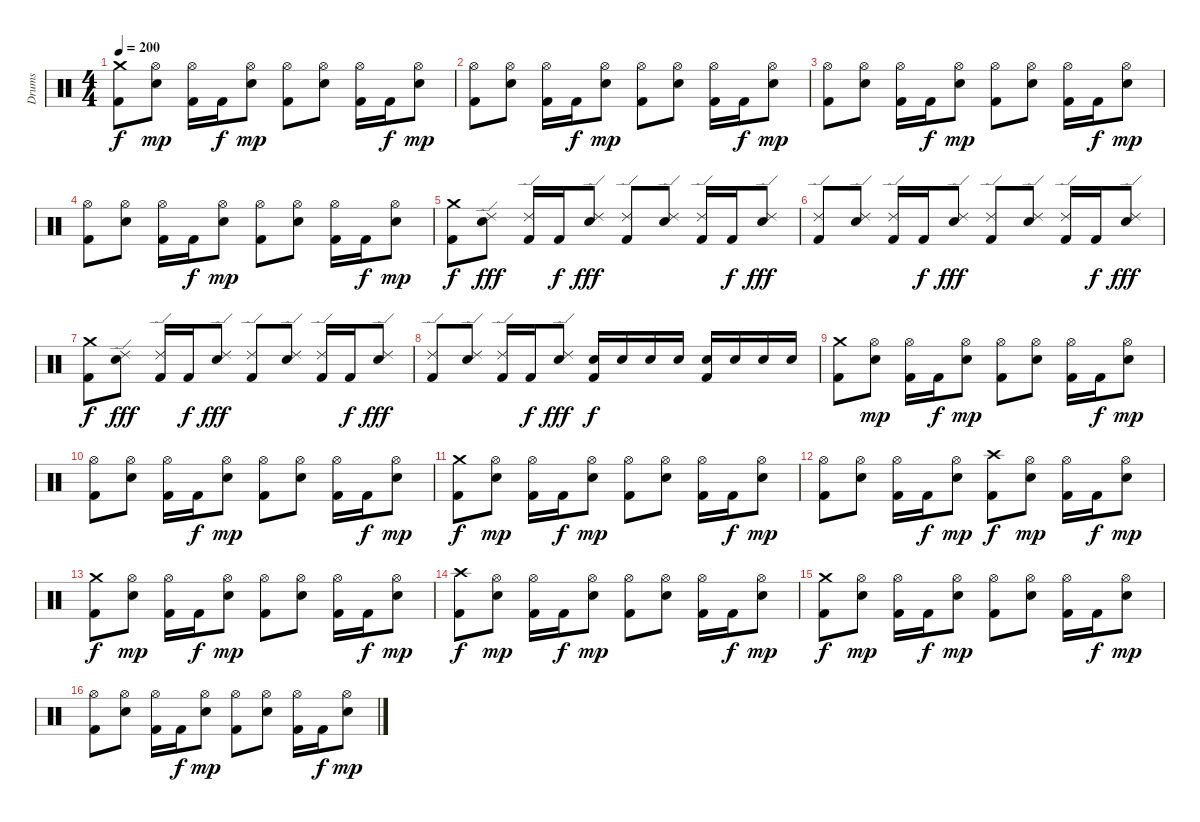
\track ("Drums" "Drums") {instrument percussion}
\staff {score}
\articulation defaults
\ts (4 4)
\tempo 200
\clef neutral
\ks c
("Crash medium (hit)" "Kick (hit) 2").8{dy f} ("Hi-Hat (open)" "Snare (hit) 2").8{dy mp} ("Hi-Hat (open)" "Kick (hit) 2").16 "Kick (hit) 2".16{dy f} ("Hi-Hat (open)" "Snare (hit) 2").8{dy mp} ("Hi-Hat (open)" "Kick (hit) 2").8 ("Hi-Hat (open)" "Snare (hit) 2").8 ("Hi-Hat (open)" "Kick (hit) 2").16 "Kick (hit) 2".16{dy f} ("Hi-Hat (open)" "Snare (hit) 2").8{dy mp} |
("Hi-Hat (open)" "Kick (hit) 2").8 ("Hi-Hat (open)" "Snare (hit) 2").8 ("Hi-Hat (open)" "Kick (hit) 2").16 "Kick (hit) 2".16{dy f} ("Hi-Hat (open)" "Snare (hit) 2").8{dy mp} ("Hi-Hat (open)" "Kick (hit) 2").8 ("Hi-Hat (open)" "Snare (hit) 2").8 ("Hi-Hat (open)" "Kick (hit) 2").16 "Kick (hit) 2".16{dy f} ("Hi-Hat (open)" "Snare (hit) 2").8{dy mp} |
("Hi-Hat (open)" "Kick (hit) 2").8 ("Hi-Hat (open)" "Snare (hit) 2").8 ("Hi-Hat (open)" "Kick (hit) 2").16 "Kick (hit) 2".16{dy f} ("Hi-Hat (open)" "Snare (hit) 2").8{dy mp} ("Hi-Hat (open)" "Kick (hit) 2").8 ("Hi-Hat (open)" "Snare (hit) 2").8 ("Hi-Hat (open)" "Kick (hit) 2").16 "Kick (hit) 2".16{dy f} ("Hi-Hat (open)" "Snare (hit) 2").8{dy mp} |
("Hi-Hat (open)" "Kick (hit) 2").8 ("Hi-Hat (open)" "Snare (hit) 2").8 ("Hi-Hat (open)" "Kick (hit) 2").16 "Kick (hit) 2".16{dy f} ("Hi-Hat (open)" "Snare (hit) 2").8{dy mp} ("Hi-Hat (open)" "Kick (hit) 2").8 ("Hi-Hat (open)" "Snare (hit) 2").8 ("Hi-Hat (open)" "Kick (hit) 2").16 "Kick (hit) 2".16{dy f} ("Hi-Hat (open)" "Snare (hit) 2").8{dy mp} |
("Crash medium (hit)" "Kick (hit) 2").8{dy f} ("Ride (edge) 2" "Snare (hit) 2").8{dy fff} ("Ride (edge) 2" "Kick (hit) 2").16 "Kick (hit) 2".16{dy f} ("Ride (edge) 2" "Snare (hit) 2").8{dy fff} ("Ride (edge) 2" "Kick (hit) 2").8 ("Ride (edge) 2" "Snare (hit) 2").8 ("Ride (edge) 2" "Kick (hit) 2").16 "Kick (hit) 2".16{dy f} ("Ride (edge) 2" "Snare (hit) 2").8{dy fff} |
("Ride (edge) 2" "Kick (hit) 2").8 ("Ride (edge) 2" "Snare (hit) 2").8 ("Ride (edge) 2" "Kick (hit) 2").16 "Kick (hit) 2".16{dy f} ("Ride (edge) 2" "Snare (hit) 2").8{dy fff} ("Ride (edge) 2" "Kick (hit) 2").8 ("Ride (edge) 2" "Snare (hit) 2").8 ("Ride (edge) 2" "Kick (hit) 2").16 "Kick (hit) 2".16{dy f} ("Ride (edge) 2" "Snare (hit) 2").8{dy fff} |
("Crash medium (hit)" "Kick (hit) 2").8{dy f} ("Ride (edge) 2" "Snare (hit) 2").8{dy fff} ("Ride (edge) 2" "Kick (hit) 2").16 "Kick (hit) 2".16{dy f} ("Ride (edge) 2" "Snare (hit) 2").8{dy fff} ("Ride (edge) 2" "Kick (hit) 2").8 ("Ride (edge) 2" "Snare (hit) 2").8 ("Ride (edge) 2" "Kick (hit) 2").16 "Kick (hit) 2".16{dy f} ("Ride (edge) 2" "Snare (hit) 2").8{dy fff} |
("Ride (edge) 2" "Kick (hit) 2").8 ("Ride (edge) 2" "Snare (hit) 2").8 ("Ride (edge) 2" "Kick (hit) 2").16 "Kick (hit) 2".16{dy f} ("Ride (edge) 2" "Snare (hit) 2").8{dy fff} ("Snare (hit) 2" "Kick (hit) 2").16{dy f} "Snare (hit) 2".16 "Snare (hit) 2".16 "Snare (hit) 2".16 ("Snare (hit) 2" "Kick (hit) 2").16 "Snare (hit) 2".16 "Snare (hit) 2".16 "Snare (hit) 2".16 |
("Crash medium (hit)" "Kick (hit) 2").8 ("Hi-Hat (open)" "Snare (hit) 2").8{dy mp} ("Hi-Hat (open)" "Kick (hit) 2").16 "Kick (hit) 2".16{dy f} ("Hi-Hat (open)" "Snare (hit) 2").8{dy mp} ("Hi-Hat (open)" "Kick (hit) 2").8 ("Hi-Hat (open)" "Snare (hit) 2").8 ("Hi-Hat (open)" "Kick (hit) 2").16 "Kick (hit) 2".16{dy f} ("Hi-Hat (open)" "Snare (hit) 2").8{dy mp} |
("Hi-Hat (open)" "Kick (hit) 2").8 ("Hi-Hat (open)" "Snare (hit) 2").8 ("Hi-Hat (open)" "Kick (hit) 2").16 "Kick (hit) 2".16{dy f} ("Hi-Hat (open)" "Snare (hit) 2").8{dy mp} ("Hi-Hat (open)" "Kick (hit) 2").8 ("Hi-Hat (open)" "Snare (hit) 2").8 ("Hi-Hat (open)" "Kick (hit) 2").16 "Kick (hit) 2".16{dy f} ("Hi-Hat (open)" "Snare (hit) 2").8{dy mp} |
("Crash medium (hit)" "Kick (hit) 2").8{dy f} ("Hi-Hat (open)" "Snare (hit) 2").8{dy mp} ("Hi-Hat (open)" "Kick (hit) 2").16 "Kick (hit) 2".16{dy f} ("Hi-Hat (open)" "Snare (hit) 2").8{dy mp} ("Hi-Hat (open)" "Kick (hit) 2").8 ("Hi-Hat (open)" "Snare (hit) 2").8 ("Hi-Hat (open)" "Kick (hit) 2").16 "Kick (hit) 2".16{dy f} ("Hi-Hat (open)" "Snare (hit) 2").8{dy mp} |
("Hi-Hat (open)" "Kick (hit) 2").8 ("Hi-Hat (open)" "Snare (hit) 2").8 ("Hi-Hat (open)" "Kick (hit) 2").16 "Kick (hit) 2".16{dy f} ("Hi-Hat (open)" "Snare (hit) 2").8{dy mp} ("Crash high (hit)" "Kick (hit) 2").8{dy f} ("Hi-Hat (open)" "Snare (hit) 2").8{dy mp} ("Hi-Hat (open)" "Kick (hit) 2").16 "Kick (hit) 2".16{dy f} ("Hi-Hat (open)" "Snare (hit) 2").8{dy mp} |
("Crash medium (hit)" "Kick (hit) 2").8{dy f} ("Hi-Hat (open)" "Snare (hit) 2").8{dy mp} ("Hi-Hat (open)" "Kick (hit) 2").16 "Kick (hit) 2".16{dy f} ("Hi-Hat (open)" "Snare (hit) 2").8{dy mp} ("Hi-Hat (open)" "Kick (hit) 2").8 ("Hi-Hat (open)" "Snare (hit) 2").8 ("Hi-Hat (open)" "Kick (hit) 2").16 "Kick (hit) 2".16{dy f} ("Hi-Hat (open)" "Snare (hit) 2").8{dy mp} |
("Crash high (hit)" "Kick (hit) 2").8{dy f} ("Hi-Hat (open)" "Snare (hit) 2").8{dy mp} ("Hi-Hat (open)" "Kick (hit) 2").16 "Kick (hit) 2".16{dy f} ("Hi-Hat (open)" "Snare (hit) 2").8{dy mp} ("Hi-Hat (open)" "Kick (hit) 2").8 ("Hi-Hat (open)" "Snare (hit) 2").8 ("Hi-Hat (open)" "Kick (hit) 2").16 "Kick (hit) 2".16{dy f} ("Hi-Hat (open)" "Snare (hit) 2").8{dy mp} |
("Crash medium (hit)" "Kick (hit) 2").8{dy f} ("Hi-Hat (open)" "Snare (hit) 2").8{dy mp} ("Hi-Hat (open)" "Kick (hit) 2").16 "Kick (hit) 2".16{dy f} ("Hi-Hat (open)" "Snare (hit) 2").8{dy mp} ("Hi-Hat (open)" "Kick (hit) 2").8 ("Hi-Hat (open)" "Snare (hit) 2").8 ("Hi-Hat (open)" "Kick (hit) 2").16 "Kick (hit) 2".16{dy f} ("Hi-Hat (open)" "Snare (hit) 2").8{dy mp} |
("Hi-Hat (open)" "Kick (hit) 2").8 ("Hi-Hat (open)" "Snare (hit) 2").8 ("Hi-Hat (open)" "Kick (hit) 2").16 "Kick (hit) 2".16{dy f} ("Hi-Hat (open)" "Snare (hit) 2").8{dy mp} ("Hi-Hat (open)" "Kick (hit) 2").8 ("Hi-Hat (open)" "Snare (hit) 2").8 ("Hi-Hat (open)" "Kick (hit) 2").16 "Kick (hit) 2".16{dy f} ("Hi-Hat (open)" "Snare (hit) 2").8{dy mp}
